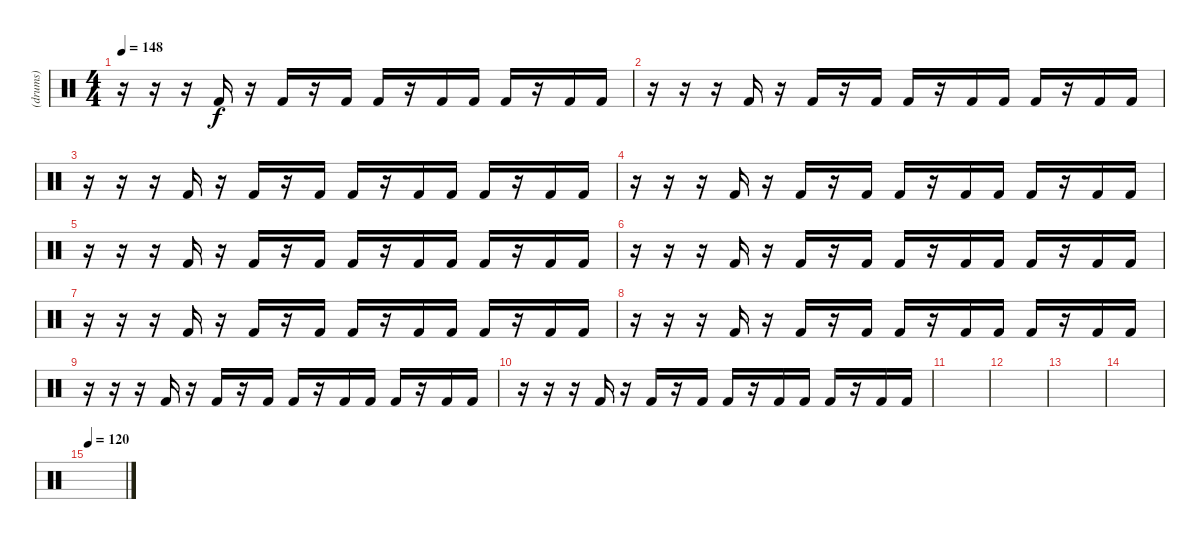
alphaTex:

\track ("(drums)" "(drums)") {instrument percussion}
\staff {score}
\articulation defaults
\ts (4 4)
\tempo 148
\clef neutral
\ks c
r.16{dy f} r.16 r.16 "Kick (hit) 2".16 r.16 "Kick (hit) 2".16 r.16 "Kick (hit) 2".16 "Kick (hit) 2".16 r.16 "Kick (hit) 2".16 "Kick (hit) 2".16 "Kick (hit) 2".16 r.16 "Kick (hit) 2".16 "Kick (hit) 2".16 |
r.16 r.16 r.16 "Kick (hit) 2".16 r.16 "Kick (hit) 2".16 r.16 "Kick (hit) 2".16 "Kick (hit) 2".16 r.16 "Kick (hit) 2".16 "Kick (hit) 2".16 "Kick (hit) 2".16 r.16 "Kick (hit) 2".16 "Kick (hit) 2".16 |
r.16 r.16 r.16 "Kick (hit) 2".16 r.16 "Kick (hit) 2".16 r.16 "Kick (hit) 2".16 "Kick (hit) 2".16 r.16 "Kick (hit) 2".16 "Kick (hit) 2".16 "Kick (hit) 2".16 r.16 "Kick (hit) 2".16 "Kick (hit) 2".16 |
r.16 r.16 r.16 "Kick (hit) 2".16 r.16 "Kick (hit) 2".16 r.16 "Kick (hit) 2".16 "Kick (hit) 2".16 r.16 "Kick (hit) 2".16 "Kick (hit) 2".16 "Kick (hit) 2".16 r.16 "Kick (hit) 2".16 "Kick (hit) 2".16 |
r.16 r.16 r.16 "Kick (hit) 2".16 r.16 "Kick (hit) 2".16 r.16 "Kick (hit) 2".16 "Kick (hit) 2".16 r.16 "Kick (hit) 2".16 "Kick (hit) 2".16 "Kick (hit) 2".16 r.16 "Kick (hit) 2".16 "Kick (hit) 2".16 |
r.16 r.16 r.16 "Kick (hit) 2".16 r.16 "Kick (hit) 2".16 r.16 "Kick (hit) 2".16 "Kick (hit) 2".16 r.16 "Kick (hit) 2".16 "Kick (hit) 2".16 "Kick (hit) 2".16 r.16 "Kick (hit) 2".16 "Kick (hit) 2".16 |
r.16 r.16 r.16 "Kick (hit) 2".16 r.16 "Kick (hit) 2".16 r.16 "Kick (hit) 2".16 "Kick (hit) 2".16 r.16 "Kick (hit) 2".16 "Kick (hit) 2".16 "Kick (hit) 2".16 r.16 "Kick (hit) 2".16 "Kick (hit) 2".16 |
r.16 r.16 r.16 "Kick (hit) 2".16 r.16 "Kick (hit) 2".16 r.16 "Kick (hit) 2".16 "Kick (hit) 2".16 r.16 "Kick (hit) 2".16 "Kick (hit) 2".16 "Kick (hit) 2".16 r.16 "Kick (hit) 2".16 "Kick (hit) 2".16 |
r.16 r.16 r.16 "Kick (hit) 2".16 r.16 "Kick (hit) 2".16 r.16 "Kick (hit) 2".16 "Kick (hit) 2".16 r.16 "Kick (hit) 2".16 "Kick (hit) 2".16 "Kick (hit) 2".16 r.16 "Kick (hit) 2".16 "Kick (hit) 2".16 |
r.16 r.16 r.16 "Kick (hit) 2".16 r.16 "Kick (hit) 2".16 r.16 "Kick (hit) 2".16 "Kick (hit) 2".16 r.16 "Kick (hit) 2".16 "Kick (hit) 2".16 "Kick (hit) 2".16 r.16 "Kick (hit) 2".16 "Kick (hit) 2".16 |
|
|
|
|
\tempo 120
